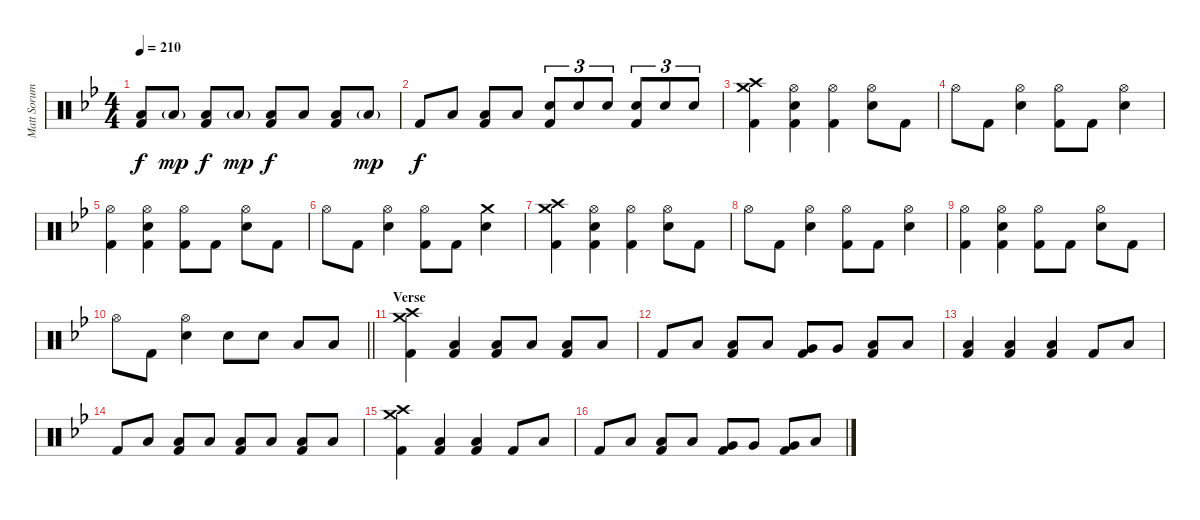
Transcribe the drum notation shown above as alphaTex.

\track ("Matt Sorum - Drums" "Matt Sorum") {instrument percussion}
\staff {score}
\articulation defaults
\ts (4 4)
\tempo 210
\clef neutral
\ks bb
("Low Tom (hit)" "Kick (hit) 2").8{dy f} "Low Tom (hit)"{g}.8{dy mp} ("Low Tom (hit)" "Kick (hit) 2").8{dy f} "Low Tom (hit)"{g}.8{dy mp} ("Low Tom (hit)" "Kick (hit) 2").8{dy f} "Low Tom (hit)".8 ("Low Tom (hit)" "Kick (hit) 2").8 "Low Tom (hit)"{g}.8{dy mp} |
"Kick (hit) 2".8{dy f} "Low Tom (hit)".8 ("Low Tom (hit)" "Kick (hit) 2").8 "Low Tom (hit)".8 ("Snare (hit) 2" "Kick (hit) 2").8{tu (3 2)} "Snare (hit) 2".8{tu (3 2)} "Snare (hit) 2".8{tu (3 2)} ("Snare (hit) 2" "Kick (hit) 2").8{tu (3 2)} "Snare (hit) 2".8{tu (3 2)} "Snare (hit) 2".8{tu (3 2)} |
("Crash medium (hit)" "Crash high (hit)" "Kick (hit) 2").4 ("Hi-Hat (open)" "Snare (hit) 2" "Kick (hit) 2").4 ("Hi-Hat (open)" "Kick (hit) 2").4 ("Hi-Hat (open)" "Snare (hit) 2").8 "Kick (hit) 2".8 |
"Hi-Hat (open)".8 "Kick (hit) 2".8 ("Hi-Hat (open)" "Snare (hit) 2").4 ("Hi-Hat (open)" "Kick (hit) 2").8 "Kick (hit) 2".8 ("Hi-Hat (open)" "Snare (hit) 2").4 |
("Hi-Hat (open)" "Kick (hit) 2").4 ("Hi-Hat (open)" "Snare (hit) 2" "Kick (hit) 2").4 ("Hi-Hat (open)" "Kick (hit) 2").8 "Kick (hit) 2".8 ("Hi-Hat (open)" "Snare (hit) 2").8 "Kick (hit) 2".8 |
"Hi-Hat (open)".8 "Kick (hit) 2".8 ("Hi-Hat (open)" "Snare (hit) 2").4 ("Hi-Hat (open)" "Kick (hit) 2").8 "Kick (hit) 2".8 ("Crash medium (hit)" "Snare (hit) 2").4 |
("Crash medium (hit)" "Crash high (hit)" "Kick (hit) 2").4 ("Hi-Hat (open)" "Snare (hit) 2" "Kick (hit) 2").4 ("Hi-Hat (open)" "Kick (hit) 2").4 ("Hi-Hat (open)" "Snare (hit) 2").8 "Kick (hit) 2".8 |
"Hi-Hat (open)".8 "Kick (hit) 2".8 ("Hi-Hat (open)" "Snare (hit) 2").4 ("Hi-Hat (open)" "Kick (hit) 2").8 "Kick (hit) 2".8 ("Hi-Hat (open)" "Snare (hit) 2").4 |
("Hi-Hat (open)" "Kick (hit) 2").4 ("Hi-Hat (open)" "Snare (hit) 2" "Kick (hit) 2").4 ("Hi-Hat (open)" "Kick (hit) 2").8 "Kick (hit) 2".8 ("Hi-Hat (open)" "Snare (hit) 2").8 "Kick (hit) 2".8 |
\barLineRight lightlight "Hi-Hat (open)".8 "Kick (hit) 2".8
("Hi-Hat (open)" "Snare (hit) 2").4 "Snare (hit) 2".8 "Snare (hit) 2".8 "Low Tom (hit)".8 "Low Tom (hit)".8 |
\section ("" "Verse")
("Crash medium (hit)" "Crash high (hit)" "Kick (hit) 2").4 ("Low Tom (hit)" "Kick (hit) 2").4 ("Low Tom (hit)" "Kick (hit) 2").8 "Low Tom (hit)".8 ("Low Tom (hit)" "Kick (hit) 2").8 "Low Tom (hit)".8 |
"Kick (hit) 2".8 "Low Tom (hit)".8 ("Low Tom (hit)" "Kick (hit) 2").8 "Low Tom (hit)".8 ("Very Low Tom (hit)" "Kick (hit) 2").8 "Very Low Tom (hit)".8 ("Low Floor Tom (hit)" "Kick (hit) 2").8 "Low Floor Tom (hit)".8 |
("Low Tom (hit)" "Kick (hit) 2").4 ("Low Tom (hit)" "Kick (hit) 2").4 ("Low Tom (hit)" "Kick (hit) 2").4 "Kick (hit) 2".8 "Low Tom (hit)".8 |
"Kick (hit) 2".8 "Low Tom (hit)".8 ("Low Tom (hit)" "Kick (hit) 2").8 "Low Tom (hit)".8 ("Low Tom (hit)" "Kick (hit) 2").8 "Low Tom (hit)".8 ("Low Tom (hit)" "Kick (hit) 2").8 "Low Tom (hit)".8 |
("Crash medium (hit)" "Crash high (hit)" "Kick (hit) 2").4 ("Low Tom (hit)" "Kick (hit) 2").4 ("Low Tom (hit)" "Kick (hit) 2").4 "Kick (hit) 2".8 "Low Tom (hit)".8 |
"Kick (hit) 2".8 "Low Tom (hit)".8 ("Low Tom (hit)" "Kick (hit) 2").8 "Low Tom (hit)".8 ("Very Low Tom (hit)" "Kick (hit) 2").8 "Very Low Tom (hit)".8 ("Very Low Tom (hit)" "Kick (hit) 2").8 "Low Floor Tom (hit)".8
